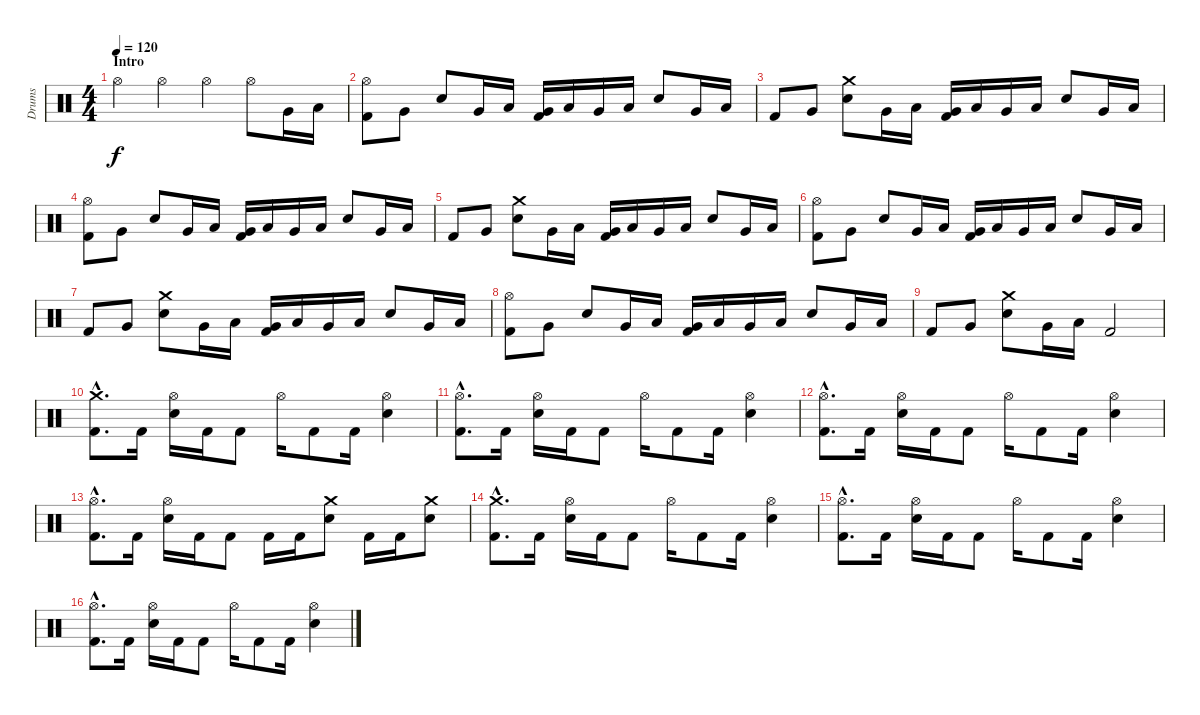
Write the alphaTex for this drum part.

\track ("Drums" "Drums") {instrument percussion}
\staff {score}
\articulation defaults
\ts (4 4)
\section ("" "Intro")
\tempo 120
\clef neutral
\ks c "Hi-Hat (open)".4{dy f} "Hi-Hat (open)".4 "Hi-Hat (open)".4 "Hi-Hat (open)".8 "Very Low Tom (hit)".16 "Low Tom (hit)".16
|
("Hi-Hat (open)" "Kick (hit) 2").8 "Very Low Tom (hit)".8 "Electric Snare (hit)".8 "Very Low Tom (hit)".16 "Low Tom (hit)".16 ("Very Low Tom (hit)" "Kick (hit) 2").16 "Low Tom (hit)".16 "Very Low Tom (hit)".16 "Low Floor Tom (hit)".16 "Electric Snare (hit)".8 "Very Low Tom (hit)".16 "Low Tom (hit)".16 |
"Kick (hit) 2".8 "Very Low Tom (hit)".8 ("Crash medium (hit)" "Electric Snare (hit)").8 "Very Low Tom (hit)".16 "Low Tom (hit)".16 ("Very Low Tom (hit)" "Kick (hit) 2").16 "Low Tom (hit)".16 "Very Low Tom (hit)".16 "Low Floor Tom (hit)".16 "Electric Snare (hit)".8 "Very Low Tom (hit)".16 "Low Tom (hit)".16 |
("Hi-Hat (open)" "Kick (hit) 2").8 "Very Low Tom (hit)".8 "Electric Snare (hit)".8 "Very Low Tom (hit)".16 "Low Tom (hit)".16 ("Very Low Tom (hit)" "Kick (hit) 2").16 "Low Tom (hit)".16 "Very Low Tom (hit)".16 "Low Floor Tom (hit)".16 "Electric Snare (hit)".8 "Very Low Tom (hit)".16 "Low Tom (hit)".16 |
"Kick (hit) 2".8 "Very Low Tom (hit)".8 ("Crash medium (hit)" "Electric Snare (hit)").8 "Very Low Tom (hit)".16 "Low Tom (hit)".16 ("Very Low Tom (hit)" "Kick (hit) 2").16 "Low Tom (hit)".16 "Very Low Tom (hit)".16 "Low Floor Tom (hit)".16 "Electric Snare (hit)".8 "Very Low Tom (hit)".16 "Low Tom (hit)".16 |
("Hi-Hat (open)" "Kick (hit) 2").8 "Very Low Tom (hit)".8 "Electric Snare (hit)".8 "Very Low Tom (hit)".16 "Low Tom (hit)".16 ("Very Low Tom (hit)" "Kick (hit) 2").16 "Low Tom (hit)".16 "Very Low Tom (hit)".16 "Low Floor Tom (hit)".16 "Electric Snare (hit)".8 "Very Low Tom (hit)".16 "Low Tom (hit)".16 |
"Kick (hit) 2".8 "Very Low Tom (hit)".8 ("Crash medium (hit)" "Electric Snare (hit)").8 "Very Low Tom (hit)".16 "Low Tom (hit)".16 ("Very Low Tom (hit)" "Kick (hit) 2").16 "Low Tom (hit)".16 "Very Low Tom (hit)".16 "Low Floor Tom (hit)".16 "Electric Snare (hit)".8 "Very Low Tom (hit)".16 "Low Tom (hit)".16 |
("Hi-Hat (open)" "Kick (hit) 2").8 "Very Low Tom (hit)".8 "Electric Snare (hit)".8 "Very Low Tom (hit)".16 "Low Tom (hit)".16 ("Very Low Tom (hit)" "Kick (hit) 2").16 "Low Tom (hit)".16 "Very Low Tom (hit)".16 "Low Floor Tom (hit)".16 "Electric Snare (hit)".8 "Very Low Tom (hit)".16 "Low Tom (hit)".16 |
"Kick (hit) 2".8 "Very Low Tom (hit)".8 ("Crash medium (hit)" "Electric Snare (hit)").8 "Very Low Tom (hit)".16 "Low Tom (hit)".16 "Kick (hit) 2".2 |
("Crash medium (hit)"{hac} "Kick (hit) 2"{hac}).8{d} "Kick (hit) 2".16 ("Hi-Hat (open)" "Electric Snare (hit)").16 "Kick (hit) 2".16 "Kick (hit) 2".8 "Hi-Hat (open)".16 "Kick (hit) 2".8 "Kick (hit) 2".16 ("Hi-Hat (open)" "Electric Snare (hit)").4 |
("Hi-Hat (open)"{hac} "Kick (hit) 2"{hac}).8{d} "Kick (hit) 2".16 ("Hi-Hat (open)" "Electric Snare (hit)").16 "Kick (hit) 2".16 "Kick (hit) 2".8 "Hi-Hat (open)".16 "Kick (hit) 2".8 "Kick (hit) 2".16 ("Hi-Hat (open)" "Electric Snare (hit)").4 |
("Hi-Hat (open)"{hac} "Kick (hit) 2"{hac}).8{d} "Kick (hit) 2".16 ("Hi-Hat (open)" "Electric Snare (hit)").16 "Kick (hit) 2".16 "Kick (hit) 2".8 "Hi-Hat (open)".16 "Kick (hit) 2".8 "Kick (hit) 2".16 ("Hi-Hat (open)" "Electric Snare (hit)").4 |
("Hi-Hat (open)"{hac} "Kick (hit) 2"{hac}).8{d} "Kick (hit) 2".16 ("Hi-Hat (open)" "Electric Snare (hit)").16 "Kick (hit) 2".16 "Kick (hit) 2".8 "Kick (hit) 2".16 "Kick (hit) 2".16 ("Crash medium (hit)" "Electric Snare (hit)").8 "Kick (hit) 2".16 "Kick (hit) 2".16 ("Crash medium (hit)" "Electric Snare (hit)").8 |
("Crash medium (hit)"{hac} "Kick (hit) 2"{hac}).8{d} "Kick (hit) 2".16 ("Hi-Hat (open)" "Electric Snare (hit)").16 "Kick (hit) 2".16 "Kick (hit) 2".8 "Hi-Hat (open)".16 "Kick (hit) 2".8 "Kick (hit) 2".16 ("Hi-Hat (open)" "Electric Snare (hit)").4 |
("Hi-Hat (open)"{hac} "Kick (hit) 2"{hac}).8{d} "Kick (hit) 2".16 ("Hi-Hat (open)" "Electric Snare (hit)").16 "Kick (hit) 2".16 "Kick (hit) 2".8 "Hi-Hat (open)".16 "Kick (hit) 2".8 "Kick (hit) 2".16 ("Hi-Hat (open)" "Electric Snare (hit)").4 |
("Hi-Hat (open)"{hac} "Kick (hit) 2"{hac}).8{d} "Kick (hit) 2".16 ("Hi-Hat (open)" "Electric Snare (hit)").16 "Kick (hit) 2".16 "Kick (hit) 2".8 "Hi-Hat (open)".16 "Kick (hit) 2".8 "Kick (hit) 2".16 ("Hi-Hat (open)" "Electric Snare (hit)").4
